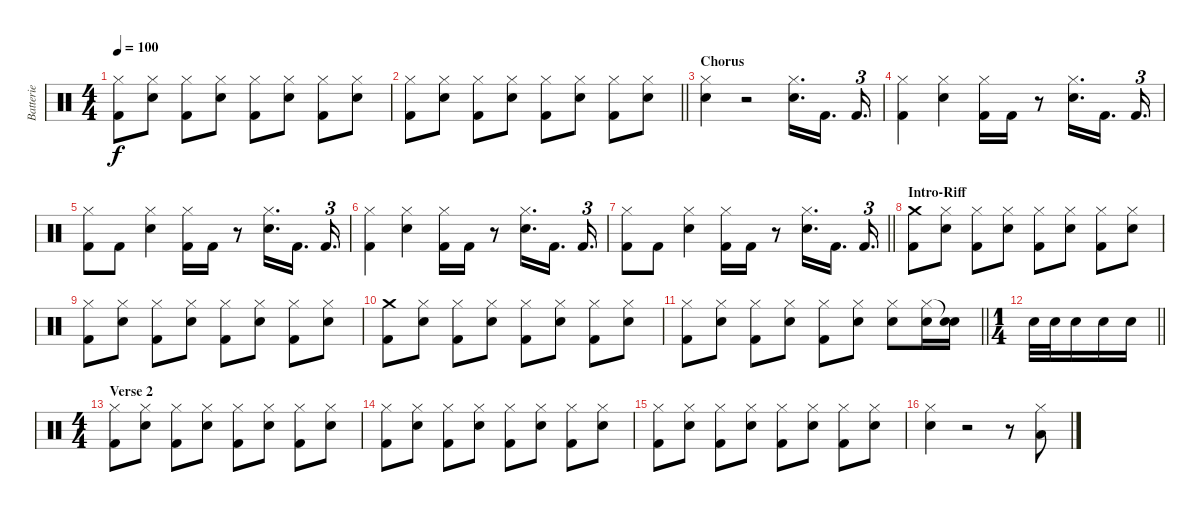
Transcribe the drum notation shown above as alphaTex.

\track ("Batterie" "Batterie") {instrument percussion}
\staff {score}
\articulation defaults
\ts (4 4)
\tempo 100
\clef neutral
\ks c
("Kick (hit) 2" "Hi-Hat (closed)").8{dy f} ("Electric Snare (hit)" "Hi-Hat (closed)").8 ("Kick (hit) 2" "Hi-Hat (closed)").8 ("Electric Snare (hit)" "Hi-Hat (closed)").8 ("Kick (hit) 2" "Hi-Hat (closed)").8 ("Electric Snare (hit)" "Hi-Hat (closed)").8 ("Kick (hit) 2" "Hi-Hat (closed)").8 ("Electric Snare (hit)" "Hi-Hat (closed)").8 |
\barLineRight lightlight
("Kick (hit) 2" "Hi-Hat (closed)").8 ("Electric Snare (hit)" "Hi-Hat (closed)").8 ("Kick (hit) 2" "Hi-Hat (closed)").8 ("Electric Snare (hit)" "Hi-Hat (closed)").8 ("Kick (hit) 2" "Hi-Hat (closed)").8 ("Electric Snare (hit)" "Hi-Hat (closed)").8 ("Kick (hit) 2" "Hi-Hat (closed)").8 ("Electric Snare (hit)" "Hi-Hat (closed)").8 |
\section ("" "Chorus")
("Electric Snare (hit)" "Hi-Hat (closed)").4 r.2 ("Electric Snare (hit)" "Hi-Hat (closed)").16{d} "Kick (hit) 2".16{d} "Kick (hit) 2".16{d tu (3 2)} |
("Kick (hit) 2" "Hi-Hat (closed)").4 ("Electric Snare (hit)" "Hi-Hat (closed)").4 ("Kick (hit) 2" "Hi-Hat (closed)").16 "Kick (hit) 2".16 r.8 ("Electric Snare (hit)" "Hi-Hat (closed)").16{d} "Kick (hit) 2".16{d} "Kick (hit) 2".16{d tu (3 2)} |
("Kick (hit) 2" "Hi-Hat (closed)").8 "Kick (hit) 2".8 ("Electric Snare (hit)" "Hi-Hat (closed)").4 ("Kick (hit) 2" "Hi-Hat (closed)").16 "Kick (hit) 2".16 r.8 ("Electric Snare (hit)" "Hi-Hat (closed)").16{d} "Kick (hit) 2".16{d} "Kick (hit) 2".16{d tu (3 2)} |
("Kick (hit) 2" "Hi-Hat (closed)").4 ("Electric Snare (hit)" "Hi-Hat (closed)").4 ("Kick (hit) 2" "Hi-Hat (closed)").16 "Kick (hit) 2".16 r.8 ("Electric Snare (hit)" "Hi-Hat (closed)").16{d} "Kick (hit) 2".16{d} "Kick (hit) 2".16{d tu (3 2)} |
\barLineRight lightlight
("Kick (hit) 2" "Hi-Hat (closed)").8 "Kick (hit) 2".8 ("Electric Snare (hit)" "Hi-Hat (closed)").4 ("Kick (hit) 2" "Hi-Hat (closed)").16 "Kick (hit) 2".16 r.8 ("Electric Snare (hit)" "Hi-Hat (closed)").16{d} "Kick (hit) 2".16{d} "Kick (hit) 2".16{d tu (3 2)} |
\section ("" "Intro-Riff")
("Kick (hit) 2" "Crash medium (hit)").8 ("Electric Snare (hit)" "Hi-Hat (closed)").8 ("Kick (hit) 2" "Hi-Hat (closed)").8 ("Electric Snare (hit)" "Hi-Hat (closed)").8 ("Kick (hit) 2" "Hi-Hat (closed)").8 ("Electric Snare (hit)" "Hi-Hat (closed)").8 ("Kick (hit) 2" "Hi-Hat (closed)").8 ("Electric Snare (hit)" "Hi-Hat (closed)").8 |
("Kick (hit) 2" "Hi-Hat (closed)").8 ("Electric Snare (hit)" "Hi-Hat (closed)").8 ("Kick (hit) 2" "Hi-Hat (closed)").8 ("Electric Snare (hit)" "Hi-Hat (closed)").8 ("Kick (hit) 2" "Hi-Hat (closed)").8 ("Electric Snare (hit)" "Hi-Hat (closed)").8 ("Kick (hit) 2" "Hi-Hat (closed)").8 ("Electric Snare (hit)" "Hi-Hat (closed)").8 |
("Kick (hit) 2" "Crash medium (hit)").8 ("Electric Snare (hit)" "Hi-Hat (closed)").8 ("Kick (hit) 2" "Hi-Hat (closed)").8 ("Electric Snare (hit)" "Hi-Hat (closed)").8 ("Kick (hit) 2" "Hi-Hat (closed)").8 ("Electric Snare (hit)" "Hi-Hat (closed)").8 ("Kick (hit) 2" "Hi-Hat (closed)").8 ("Electric Snare (hit)" "Hi-Hat (closed)").8 |
\barLineRight lightlight
("Kick (hit) 2" "Hi-Hat (closed)").8 ("Electric Snare (hit)" "Hi-Hat (closed)").8 ("Kick (hit) 2" "Hi-Hat (closed)").8 ("Electric Snare (hit)" "Hi-Hat (closed)").8 ("Kick (hit) 2" "Hi-Hat (closed)").8 ("Electric Snare (hit)" "Hi-Hat (closed)").8 ("Electric Snare (hit)" "Hi-Hat (closed)").8 ("Electric Snare (hit)" "Hi-Hat (closed)").16 ("Electric Snare (hit)" "Snare (hit)"{t}).16 |
\ts (1 4)
\barLineRight lightlight "Electric Snare (hit)".32 "Electric Snare (hit)".32 "Electric Snare (hit)".16 "Electric Snare (hit)".16 "Electric Snare (hit)".16
|
\ts (4 4)
\section ("" "Verse 2")
("Kick (hit) 2" "Hi-Hat (closed)").8 ("Electric Snare (hit)" "Hi-Hat (closed)").8 ("Kick (hit) 2" "Hi-Hat (closed)").8 ("Electric Snare (hit)" "Hi-Hat (closed)").8 ("Kick (hit) 2" "Hi-Hat (closed)").8 ("Electric Snare (hit)" "Hi-Hat (closed)").8 ("Kick (hit) 2" "Hi-Hat (closed)").8 ("Electric Snare (hit)" "Hi-Hat (closed)").8 |
("Kick (hit) 2" "Hi-Hat (closed)").8 ("Electric Snare (hit)" "Hi-Hat (closed)").8 ("Kick (hit) 2" "Hi-Hat (closed)").8 ("Electric Snare (hit)" "Hi-Hat (closed)").8 ("Kick (hit) 2" "Hi-Hat (closed)").8 ("Electric Snare (hit)" "Hi-Hat (closed)").8 ("Kick (hit) 2" "Hi-Hat (closed)").8 ("Electric Snare (hit)" "Hi-Hat (closed)").8 |
("Kick (hit) 2" "Hi-Hat (closed)").8 ("Electric Snare (hit)" "Hi-Hat (closed)").8 ("Kick (hit) 2" "Hi-Hat (closed)").8 ("Electric Snare (hit)" "Hi-Hat (closed)").8 ("Kick (hit) 2" "Hi-Hat (closed)").8 ("Electric Snare (hit)" "Hi-Hat (closed)").8 ("Kick (hit) 2" "Hi-Hat (closed)").8 ("Electric Snare (hit)" "Hi-Hat (closed)").8 |
("Electric Snare (hit)" "Hi-Hat (closed)").4 r.2 r.8 ("Low Tom (hit)" "Hi-Hat (closed)").8
